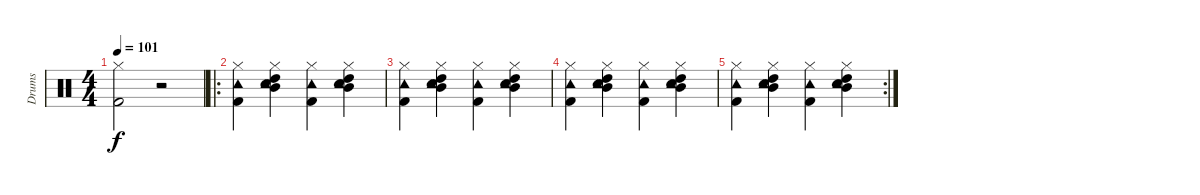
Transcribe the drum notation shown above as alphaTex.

\track ("Drums" "Drums") {instrument percussion}
\staff {score}
\articulation defaults
\ts (4 4)
\tempo 101
\clef neutral
\ks c
("Hi-Hat (closed)" "Kick (hit) 2").2{dy f} r.2 |
\ro
("Hi-Hat (closed)" "Kick (hit) 2" "Tambourine (hit)").4 ("High Tom (hit)" "Hi-Hat (closed)" "Mid Tom (hit)" "Snare (hit) 2" "Tambourine (hit)").4 ("Hi-Hat (closed)" "Kick (hit) 2" "Tambourine (hit)").4 ("High Tom (hit)" "Hi-Hat (closed)" "Mid Tom (hit)" "Snare (hit) 2" "Tambourine (hit)").4 |
("Hi-Hat (closed)" "Kick (hit) 2" "Tambourine (hit)").4 ("High Tom (hit)" "Hi-Hat (closed)" "Mid Tom (hit)" "Snare (hit) 2" "Tambourine (hit)").4 ("Hi-Hat (closed)" "Kick (hit) 2" "Tambourine (hit)").4 ("High Tom (hit)" "Hi-Hat (closed)" "Mid Tom (hit)" "Snare (hit) 2" "Tambourine (hit)").4 |
("Hi-Hat (closed)" "Kick (hit) 2" "Tambourine (hit)").4 ("High Tom (hit)" "Hi-Hat (closed)" "Mid Tom (hit)" "Snare (hit) 2" "Tambourine (hit)").4 ("Hi-Hat (closed)" "Kick (hit) 2" "Tambourine (hit)").4 ("High Tom (hit)" "Hi-Hat (closed)" "Mid Tom (hit)" "Snare (hit) 2" "Tambourine (hit)").4 |
\rc 2
("Hi-Hat (closed)" "Kick (hit) 2" "Tambourine (hit)").4 ("High Tom (hit)" "Hi-Hat (closed)" "Mid Tom (hit)" "Snare (hit) 2" "Tambourine (hit)").4 ("Hi-Hat (closed)" "Kick (hit) 2" "Tambourine (hit)").4 ("High Tom (hit)" "Hi-Hat (closed)" "Mid Tom (hit)" "Snare (hit) 2" "Tambourine (hit)").4
